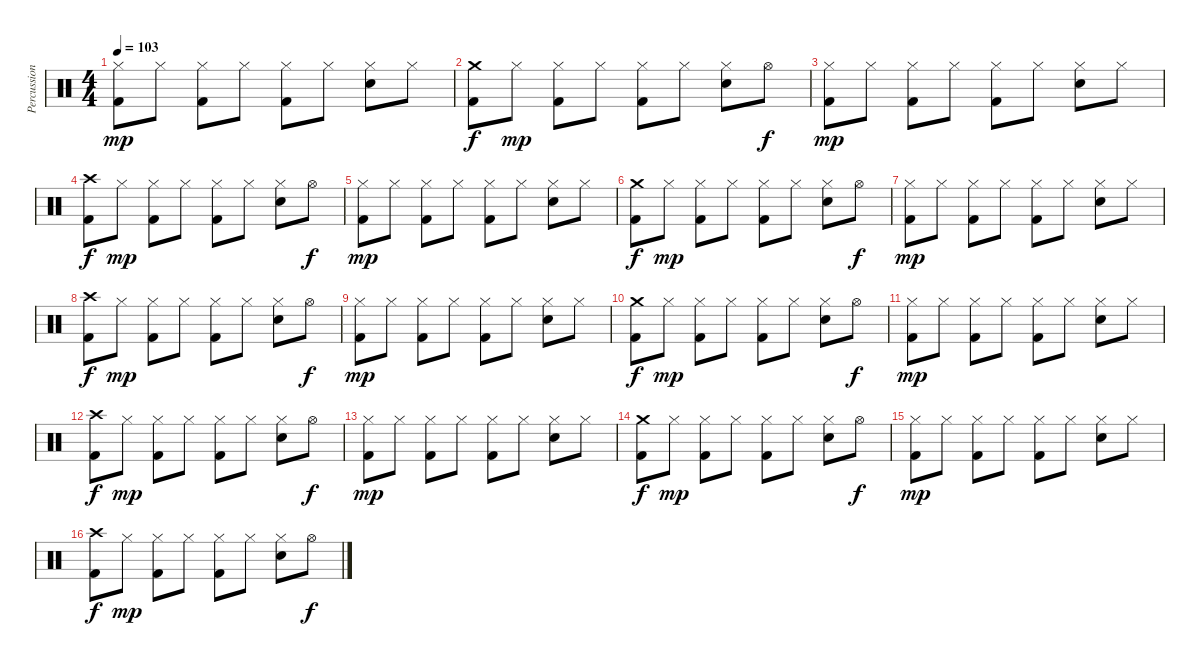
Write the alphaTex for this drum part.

\track ("Percussions" "Percussion") {instrument percussion}
\staff {score}
\articulation defaults
\ts (4 4)
\tempo 103
\clef neutral
\ks c
("Hi-Hat (closed)" "Kick (hit) 2").8{dy mp} "Hi-Hat (closed)".8 ("Hi-Hat (closed)" "Kick (hit) 2").8 "Hi-Hat (closed)".8 ("Hi-Hat (closed)" "Kick (hit) 2").8 "Hi-Hat (closed)".8 ("Hi-Hat (closed)" "Snare (hit) 2").8 "Hi-Hat (closed)".8 |
("Crash medium (hit)" "Kick (hit) 2").8{dy f} "Hi-Hat (closed)".8{dy mp} ("Hi-Hat (closed)" "Kick (hit) 2").8 "Hi-Hat (closed)".8 ("Hi-Hat (closed)" "Kick (hit) 2").8 "Hi-Hat (closed)".8 ("Hi-Hat (closed)" "Snare (hit) 2").8 "Hi-Hat (open)".8{dy f} |
("Hi-Hat (closed)" "Kick (hit) 2").8{dy mp} "Hi-Hat (closed)".8 ("Hi-Hat (closed)" "Kick (hit) 2").8 "Hi-Hat (closed)".8 ("Hi-Hat (closed)" "Kick (hit) 2").8 "Hi-Hat (closed)".8 ("Hi-Hat (closed)" "Snare (hit) 2").8 "Hi-Hat (closed)".8 |
("Crash high (hit)" "Kick (hit) 2").8{dy f} "Hi-Hat (closed)".8{dy mp} ("Hi-Hat (closed)" "Kick (hit) 2").8 "Hi-Hat (closed)".8 ("Hi-Hat (closed)" "Kick (hit) 2").8 "Hi-Hat (closed)".8 ("Hi-Hat (closed)" "Snare (hit) 2").8 "Hi-Hat (open)".8{dy f} |
("Hi-Hat (closed)" "Kick (hit) 2").8{dy mp} "Hi-Hat (closed)".8 ("Hi-Hat (closed)" "Kick (hit) 2").8 "Hi-Hat (closed)".8 ("Hi-Hat (closed)" "Kick (hit) 2").8 "Hi-Hat (closed)".8 ("Hi-Hat (closed)" "Snare (hit) 2").8 "Hi-Hat (closed)".8 |
("Crash medium (hit)" "Kick (hit) 2").8{dy f} "Hi-Hat (closed)".8{dy mp} ("Hi-Hat (closed)" "Kick (hit) 2").8 "Hi-Hat (closed)".8 ("Hi-Hat (closed)" "Kick (hit) 2").8 "Hi-Hat (closed)".8 ("Hi-Hat (closed)" "Snare (hit) 2").8 "Hi-Hat (open)".8{dy f} |
("Hi-Hat (closed)" "Kick (hit) 2").8{dy mp} "Hi-Hat (closed)".8 ("Hi-Hat (closed)" "Kick (hit) 2").8 "Hi-Hat (closed)".8 ("Hi-Hat (closed)" "Kick (hit) 2").8 "Hi-Hat (closed)".8 ("Hi-Hat (closed)" "Snare (hit) 2").8 "Hi-Hat (closed)".8 |
("Crash high (hit)" "Kick (hit) 2").8{dy f} "Hi-Hat (closed)".8{dy mp} ("Hi-Hat (closed)" "Kick (hit) 2").8 "Hi-Hat (closed)".8 ("Hi-Hat (closed)" "Kick (hit) 2").8 "Hi-Hat (closed)".8 ("Hi-Hat (closed)" "Snare (hit) 2").8 "Hi-Hat (open)".8{dy f} |
("Hi-Hat (closed)" "Kick (hit) 2").8{dy mp} "Hi-Hat (closed)".8 ("Hi-Hat (closed)" "Kick (hit) 2").8 "Hi-Hat (closed)".8 ("Hi-Hat (closed)" "Kick (hit) 2").8 "Hi-Hat (closed)".8 ("Hi-Hat (closed)" "Snare (hit) 2").8 "Hi-Hat (closed)".8 |
("Crash medium (hit)" "Kick (hit) 2").8{dy f} "Hi-Hat (closed)".8{dy mp} ("Hi-Hat (closed)" "Kick (hit) 2").8 "Hi-Hat (closed)".8 ("Hi-Hat (closed)" "Kick (hit) 2").8 "Hi-Hat (closed)".8 ("Hi-Hat (closed)" "Snare (hit) 2").8 "Hi-Hat (open)".8{dy f} |
("Hi-Hat (closed)" "Kick (hit) 2").8{dy mp} "Hi-Hat (closed)".8 ("Hi-Hat (closed)" "Kick (hit) 2").8 "Hi-Hat (closed)".8 ("Hi-Hat (closed)" "Kick (hit) 2").8 "Hi-Hat (closed)".8 ("Hi-Hat (closed)" "Snare (hit) 2").8 "Hi-Hat (closed)".8 |
("Crash high (hit)" "Kick (hit) 2").8{dy f} "Hi-Hat (closed)".8{dy mp} ("Hi-Hat (closed)" "Kick (hit) 2").8 "Hi-Hat (closed)".8 ("Hi-Hat (closed)" "Kick (hit) 2").8 "Hi-Hat (closed)".8 ("Hi-Hat (closed)" "Snare (hit) 2").8 "Hi-Hat (open)".8{dy f} |
("Hi-Hat (closed)" "Kick (hit) 2").8{dy mp} "Hi-Hat (closed)".8 ("Hi-Hat (closed)" "Kick (hit) 2").8 "Hi-Hat (closed)".8 ("Hi-Hat (closed)" "Kick (hit) 2").8 "Hi-Hat (closed)".8 ("Hi-Hat (closed)" "Snare (hit) 2").8 "Hi-Hat (closed)".8 |
("Crash medium (hit)" "Kick (hit) 2").8{dy f} "Hi-Hat (closed)".8{dy mp} ("Hi-Hat (closed)" "Kick (hit) 2").8 "Hi-Hat (closed)".8 ("Hi-Hat (closed)" "Kick (hit) 2").8 "Hi-Hat (closed)".8 ("Hi-Hat (closed)" "Snare (hit) 2").8 "Hi-Hat (open)".8{dy f} |
("Hi-Hat (closed)" "Kick (hit) 2").8{dy mp} "Hi-Hat (closed)".8 ("Hi-Hat (closed)" "Kick (hit) 2").8 "Hi-Hat (closed)".8 ("Hi-Hat (closed)" "Kick (hit) 2").8 "Hi-Hat (closed)".8 ("Hi-Hat (closed)" "Snare (hit) 2").8 "Hi-Hat (closed)".8 |
("Crash high (hit)" "Kick (hit) 2").8{dy f} "Hi-Hat (closed)".8{dy mp} ("Hi-Hat (closed)" "Kick (hit) 2").8 "Hi-Hat (closed)".8 ("Hi-Hat (closed)" "Kick (hit) 2").8 "Hi-Hat (closed)".8 ("Hi-Hat (closed)" "Snare (hit) 2").8 "Hi-Hat (open)".8{dy f}
